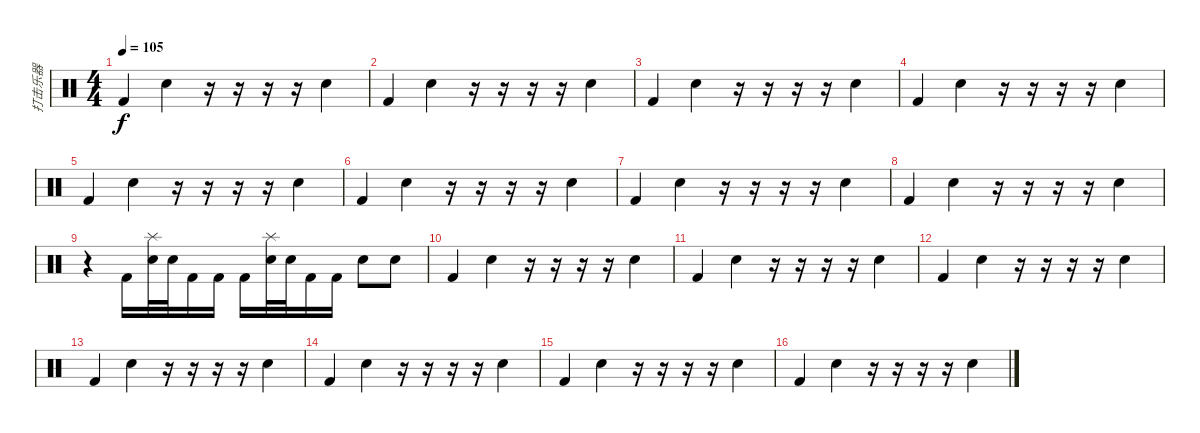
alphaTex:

\track ("打击乐器" "打击乐器") {instrument percussion}
\staff {score}
\articulation defaults
\ts (4 4)
\tempo 105
\clef neutral
\ks c "Kick (hit) 2".4{dy f} "Electric Snare (hit)".4
r.16 r.16 r.16 r.16 "Electric Snare (hit)".4 |
"Kick (hit) 2".4 "Electric Snare (hit)".4 r.16 r.16 r.16 r.16 "Electric Snare (hit)".4 |
"Kick (hit) 2".4 "Electric Snare (hit)".4 r.16 r.16 r.16 r.16 "Electric Snare (hit)".4 |
"Kick (hit) 2".4 "Electric Snare (hit)".4 r.16 r.16 r.16 r.16 "Electric Snare (hit)".4 |
"Kick (hit) 2".4 "Electric Snare (hit)".4 r.16 r.16 r.16 r.16 "Electric Snare (hit)".4 |
"Kick (hit) 2".4 "Electric Snare (hit)".4 r.16 r.16 r.16 r.16 "Electric Snare (hit)".4 |
"Kick (hit) 2".4 "Electric Snare (hit)".4 r.16 r.16 r.16 r.16 "Electric Snare (hit)".4 |
"Kick (hit) 2".4 "Electric Snare (hit)".4 r.16 r.16 r.16 r.16 "Electric Snare (hit)".4 |
r.4 "Kick (hit) 2".16 ("Snare (hit) 2" "Splash (hit)").32 "Electric Snare (hit)".32 "Kick (hit) 2".16 "Kick (hit) 2".16 "Kick (hit) 2".16 ("Snare (hit) 2" "Splash (hit)").32 "Electric Snare (hit)".32 "Kick (hit) 2".16 "Kick (hit) 2".16 "Electric Snare (hit)".8 "Electric Snare (hit)".8 |
"Kick (hit) 2".4 "Electric Snare (hit)".4 r.16 r.16 r.16 r.16 "Electric Snare (hit)".4 |
"Kick (hit) 2".4 "Electric Snare (hit)".4 r.16 r.16 r.16 r.16 "Electric Snare (hit)".4 |
"Kick (hit) 2".4 "Electric Snare (hit)".4 r.16 r.16 r.16 r.16 "Electric Snare (hit)".4 |
"Kick (hit) 2".4 "Electric Snare (hit)".4 r.16 r.16 r.16 r.16 "Electric Snare (hit)".4 |
"Kick (hit) 2".4 "Electric Snare (hit)".4 r.16 r.16 r.16 r.16 "Electric Snare (hit)".4 |
"Kick (hit) 2".4 "Electric Snare (hit)".4 r.16 r.16 r.16 r.16 "Electric Snare (hit)".4 |
"Kick (hit) 2".4 "Electric Snare (hit)".4 r.16 r.16 r.16 r.16 "Electric Snare (hit)".4
